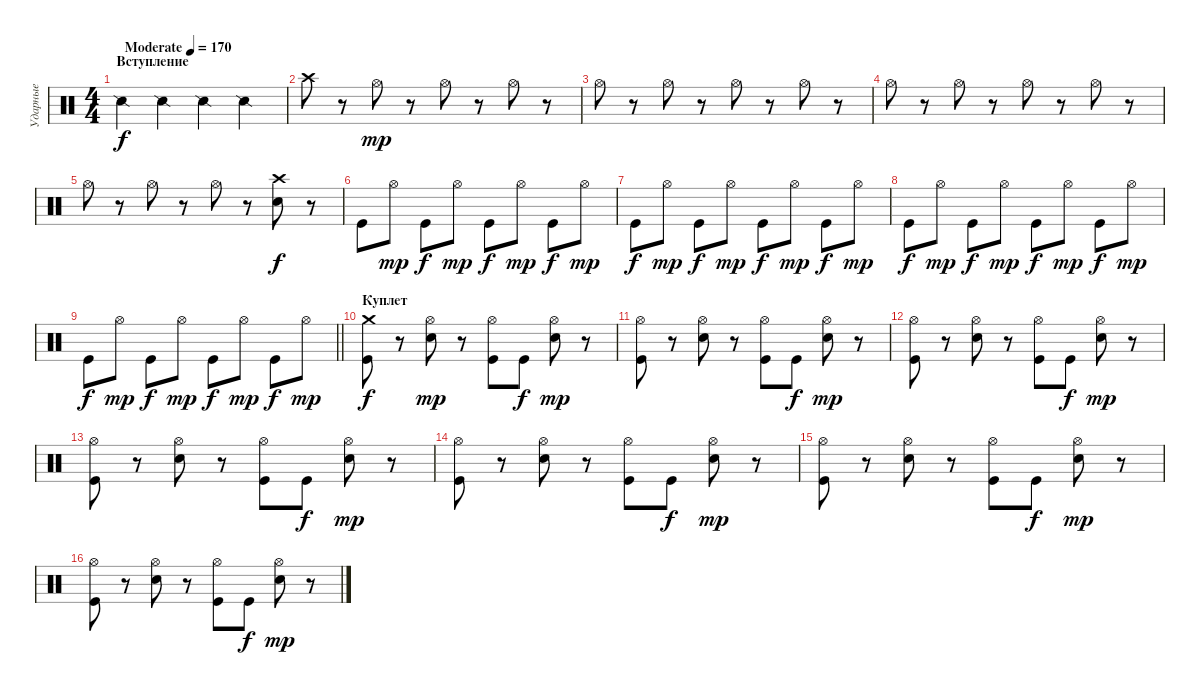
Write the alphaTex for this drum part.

\track ("Ударные" "Ударные") {instrument percussion}
\staff {score}
\articulation defaults
\ts (4 4)
\section ("" "Вступление")
\tempo (170 "Moderate")
\clef neutral
\ks c "Snare (side stick) 2".4{dy f} "Snare (side stick) 2".4 "Snare (side stick) 2".4 "Snare (side stick) 2".4
|
"Crash high (hit)".8 r.8 "Hi-Hat (open)".8{dy mp} r.8 "Hi-Hat (open)".8 r.8 "Hi-Hat (open)".8 r.8 |
"Hi-Hat (open)".8 r.8 "Hi-Hat (open)".8 r.8 "Hi-Hat (open)".8 r.8 "Hi-Hat (open)".8 r.8 |
"Hi-Hat (open)".8 r.8 "Hi-Hat (open)".8 r.8 "Hi-Hat (open)".8 r.8 "Hi-Hat (open)".8 r.8 |
"Hi-Hat (open)".8 r.8 "Hi-Hat (open)".8 r.8 "Hi-Hat (open)".8 r.8 ("Crash high (hit)" "Electric Snare (hit)").8{dy f} r.8 |
"Kick (hit)".8 "Hi-Hat (open)".8{dy mp} "Kick (hit)".8{dy f} "Hi-Hat (open)".8{dy mp} "Kick (hit)".8{dy f} "Hi-Hat (open)".8{dy mp} "Kick (hit)".8{dy f} "Hi-Hat (open)".8{dy mp} |
"Kick (hit)".8{dy f} "Hi-Hat (open)".8{dy mp} "Kick (hit)".8{dy f} "Hi-Hat (open)".8{dy mp} "Kick (hit)".8{dy f} "Hi-Hat (open)".8{dy mp} "Kick (hit)".8{dy f} "Hi-Hat (open)".8{dy mp} |
"Kick (hit)".8{dy f} "Hi-Hat (open)".8{dy mp} "Kick (hit)".8{dy f} "Hi-Hat (open)".8{dy mp} "Kick (hit)".8{dy f} "Hi-Hat (open)".8{dy mp} "Kick (hit)".8{dy f} "Hi-Hat (open)".8{dy mp} |
\barLineRight lightlight "Kick (hit)".8{dy f} "Hi-Hat (open)".8{dy mp} "Kick (hit)".8{dy f} "Hi-Hat (open)".8{dy mp} "Kick (hit)".8{dy f} "Hi-Hat (open)".8{dy mp} "Kick (hit)".8{dy f} "Hi-Hat (open)".8{dy mp}
|
\section ("" "Куплет")
("Crash medium (hit)" "Kick (hit)").8{dy f} r.8 ("Hi-Hat (open)" "Electric Snare (hit)").8{dy mp} r.8 ("Hi-Hat (open)" "Kick (hit)").8 "Kick (hit)".8{dy f} ("Hi-Hat (open)" "Electric Snare (hit)").8{dy mp} r.8 |
("Hi-Hat (open)" "Kick (hit)").8 r.8 ("Hi-Hat (open)" "Electric Snare (hit)").8 r.8 ("Hi-Hat (open)" "Kick (hit)").8 "Kick (hit)".8{dy f} ("Hi-Hat (open)" "Electric Snare (hit)").8{dy mp} r.8 |
("Hi-Hat (open)" "Kick (hit)").8 r.8 ("Hi-Hat (open)" "Electric Snare (hit)").8 r.8 ("Hi-Hat (open)" "Kick (hit)").8 "Kick (hit)".8{dy f} ("Hi-Hat (open)" "Electric Snare (hit)").8{dy mp} r.8 |
("Hi-Hat (open)" "Kick (hit)").8 r.8 ("Hi-Hat (open)" "Electric Snare (hit)").8 r.8 ("Hi-Hat (open)" "Kick (hit)").8 "Kick (hit)".8{dy f} ("Hi-Hat (open)" "Electric Snare (hit)").8{dy mp} r.8 |
("Hi-Hat (open)" "Kick (hit)").8 r.8 ("Hi-Hat (open)" "Electric Snare (hit)").8 r.8 ("Hi-Hat (open)" "Kick (hit)").8 "Kick (hit)".8{dy f} ("Hi-Hat (open)" "Electric Snare (hit)").8{dy mp} r.8 |
("Hi-Hat (open)" "Kick (hit)").8 r.8 ("Hi-Hat (open)" "Electric Snare (hit)").8 r.8 ("Hi-Hat (open)" "Kick (hit)").8 "Kick (hit)".8{dy f} ("Hi-Hat (open)" "Electric Snare (hit)").8{dy mp} r.8 |
("Hi-Hat (open)" "Kick (hit)").8 r.8 ("Hi-Hat (open)" "Electric Snare (hit)").8 r.8 ("Hi-Hat (open)" "Kick (hit)").8 "Kick (hit)".8{dy f} ("Hi-Hat (open)" "Electric Snare (hit)").8{dy mp} r.8
